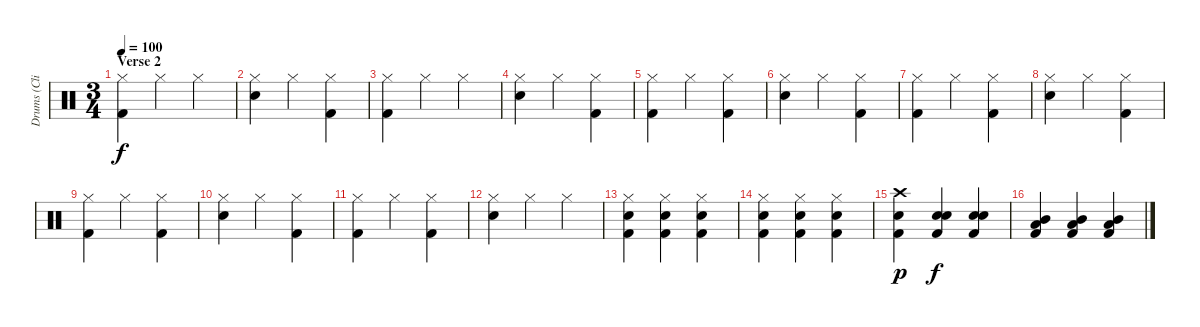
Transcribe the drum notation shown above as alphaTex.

\track ("Drums (Clive Bunker)" "Drums (Cli") {instrument percussion}
\staff {score}
\articulation defaults
\ts (3 4)
\section ("" "Verse 2")
\tempo 100
\clef neutral
\ks c
("Hi-Hat (closed)" "Kick (hit) 2").4{dy f} "Hi-Hat (closed)".4 "Hi-Hat (closed)".4 |
("Hi-Hat (closed)" "Snare (hit) 2").4 "Hi-Hat (closed)".4 ("Hi-Hat (closed)" "Kick (hit) 2").4 |
("Hi-Hat (closed)" "Kick (hit) 2").4 "Hi-Hat (closed)".4 "Hi-Hat (closed)".4 |
("Hi-Hat (closed)" "Snare (hit) 2").4 "Hi-Hat (closed)".4 ("Hi-Hat (closed)" "Kick (hit) 2").4 |
("Hi-Hat (closed)" "Kick (hit) 2").4 "Hi-Hat (closed)".4 ("Hi-Hat (closed)" "Kick (hit) 2").4 |
("Hi-Hat (closed)" "Snare (hit) 2").4 "Hi-Hat (closed)".4 ("Hi-Hat (closed)" "Kick (hit) 2").4 |
("Hi-Hat (closed)" "Kick (hit) 2").4 "Hi-Hat (closed)".4 ("Hi-Hat (closed)" "Kick (hit) 2").4 |
("Hi-Hat (closed)" "Snare (hit) 2").4 "Hi-Hat (closed)".4 ("Hi-Hat (closed)" "Kick (hit) 2").4 |
("Hi-Hat (closed)" "Kick (hit) 2").4 "Hi-Hat (closed)".4 ("Hi-Hat (closed)" "Kick (hit) 2").4 |
("Hi-Hat (closed)" "Snare (hit) 2").4 "Hi-Hat (closed)".4 ("Hi-Hat (closed)" "Kick (hit) 2").4 |
("Hi-Hat (closed)" "Kick (hit) 2").4 "Hi-Hat (closed)".4 ("Hi-Hat (closed)" "Kick (hit) 2").4 |
("Hi-Hat (closed)" "Snare (hit) 2").4 "Hi-Hat (closed)".4 "Hi-Hat (closed)".4 |
("Hi-Hat (closed)" "Snare (hit) 2" "Kick (hit) 2").4 ("Hi-Hat (closed)" "Snare (hit) 2" "Kick (hit) 2").4 ("Hi-Hat (closed)" "Snare (hit) 2" "Kick (hit) 2").4 |
("Hi-Hat (closed)" "Snare (hit) 2" "Kick (hit) 2").4 ("Hi-Hat (closed)" "Snare (hit) 2" "Kick (hit) 2").4 ("Hi-Hat (closed)" "Snare (hit) 2" "Kick (hit) 2").4 |
("Crash high (hit)" "Snare (hit) 2" "Kick (hit) 2").4{dy p} ("Electric Snare (hit)" "Snare (hit) 2" "Kick (hit) 2").4{dy f} ("Electric Snare (hit)" "Snare (hit) 2" "Kick (hit) 2").4 |
("Mid Tom (hit)" "Low Tom (hit)" "Kick (hit) 2").4 ("Mid Tom (hit)" "Low Tom (hit)" "Kick (hit) 2").4 ("Mid Tom (hit)" "Low Tom (hit)" "Kick (hit) 2").4
